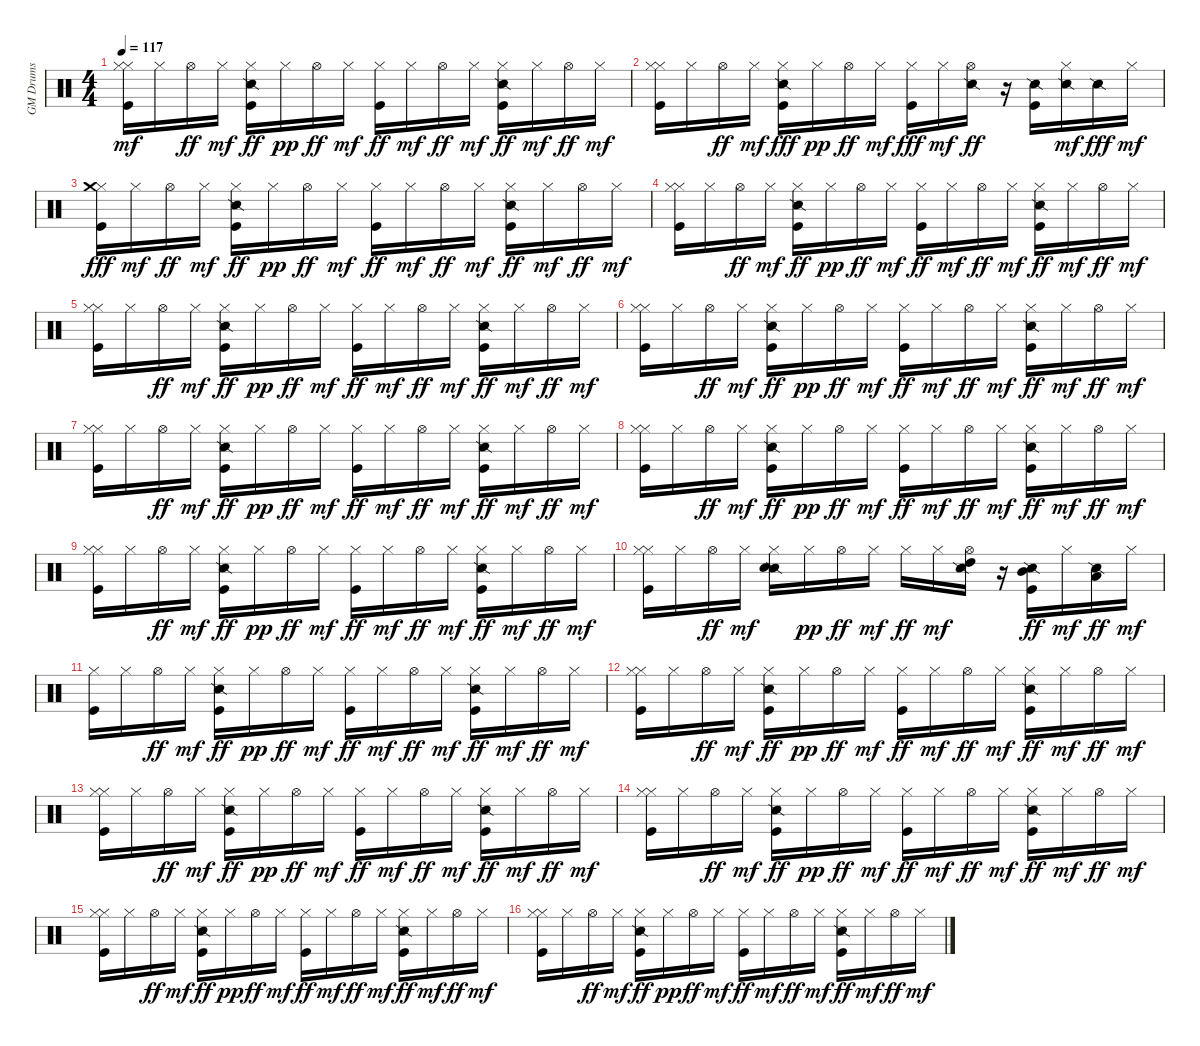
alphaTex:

\track ("GM Drums" "GM Drums") {instrument percussion}
\staff {score}
\articulation defaults
\ts (4 4)
\tempo 117
\clef neutral
\ks c
("Hi-Hat (closed)" "Kick (hit)" "Hi-Hat (closed)").16{dy mf} "Hi-Hat (closed)".16 "Hi-Hat (open)".16{dy ff} "Hi-Hat (closed)".16{dy mf} ("Kick (hit)" "Hi-Hat (closed)" "Snare (side stick) 2").16{dy ff} "Hi-Hat (closed)".16{dy pp} "Hi-Hat (open)".16{dy ff} "Hi-Hat (closed)".16{dy mf} ("Kick (hit)" "Hi-Hat (closed)").16{dy ff} "Hi-Hat (closed)".16{dy mf} "Hi-Hat (open)".16{dy ff} "Hi-Hat (closed)".16{dy mf} ("Kick (hit)" "Hi-Hat (closed)" "Snare (side stick) 2").16{dy ff} "Hi-Hat (closed)".16{dy mf} "Hi-Hat (open)".16{dy ff} "Hi-Hat (closed)".16{dy mf} |
("Hi-Hat (closed)" "Kick (hit)" "Hi-Hat (closed)").16 "Hi-Hat (closed)".16 "Hi-Hat (open)".16{dy ff} "Hi-Hat (closed)".16{dy mf} ("Hi-Hat (closed)" "Snare (side stick) 2" "Kick (hit)").16{dy fff} "Hi-Hat (closed)".16{dy pp} "Hi-Hat (open)".16{dy ff} "Hi-Hat (closed)".16{dy mf} ("Hi-Hat (closed)" "Kick (hit)").16{dy fff} "Hi-Hat (closed)".16{dy mf} ("Snare (side stick) 2" "Hi-Hat (open)").16{dy ff} r.16 ("Kick (hit)" "Snare (side stick) 2").16 ("Hi-Hat (closed)" "Snare (side stick) 2").16{dy mf} "Snare (side stick) 2".16{dy fff} "Hi-Hat (closed)".16{dy mf} |
("Kick (hit)" "Hi-Hat (closed)" "Crash medium (hit)").16{dy fff} "Hi-Hat (closed)".16{dy mf} "Hi-Hat (open)".16{dy ff} "Hi-Hat (closed)".16{dy mf} ("Kick (hit)" "Hi-Hat (closed)" "Snare (side stick) 2").16{dy ff} "Hi-Hat (closed)".16{dy pp} "Hi-Hat (open)".16{dy ff} "Hi-Hat (closed)".16{dy mf} ("Kick (hit)" "Hi-Hat (closed)").16{dy ff} "Hi-Hat (closed)".16{dy mf} "Hi-Hat (open)".16{dy ff} "Hi-Hat (closed)".16{dy mf} ("Kick (hit)" "Hi-Hat (closed)" "Snare (side stick) 2").16{dy ff} "Hi-Hat (closed)".16{dy mf} "Hi-Hat (open)".16{dy ff} "Hi-Hat (closed)".16{dy mf} |
("Hi-Hat (closed)" "Kick (hit)" "Hi-Hat (closed)").16 "Hi-Hat (closed)".16 "Hi-Hat (open)".16{dy ff} "Hi-Hat (closed)".16{dy mf} ("Kick (hit)" "Hi-Hat (closed)" "Snare (side stick) 2").16{dy ff} "Hi-Hat (closed)".16{dy pp} "Hi-Hat (open)".16{dy ff} "Hi-Hat (closed)".16{dy mf} ("Kick (hit)" "Hi-Hat (closed)").16{dy ff} "Hi-Hat (closed)".16{dy mf} "Hi-Hat (open)".16{dy ff} "Hi-Hat (closed)".16{dy mf} ("Kick (hit)" "Hi-Hat (closed)" "Snare (side stick) 2").16{dy ff} "Hi-Hat (closed)".16{dy mf} "Hi-Hat (open)".16{dy ff} "Hi-Hat (closed)".16{dy mf} |
("Hi-Hat (closed)" "Kick (hit)" "Hi-Hat (closed)").16 "Hi-Hat (closed)".16 "Hi-Hat (open)".16{dy ff} "Hi-Hat (closed)".16{dy mf} ("Kick (hit)" "Hi-Hat (closed)" "Snare (side stick) 2").16{dy ff} "Hi-Hat (closed)".16{dy pp} "Hi-Hat (open)".16{dy ff} "Hi-Hat (closed)".16{dy mf} ("Kick (hit)" "Hi-Hat (closed)").16{dy ff} "Hi-Hat (closed)".16{dy mf} "Hi-Hat (open)".16{dy ff} "Hi-Hat (closed)".16{dy mf} ("Kick (hit)" "Hi-Hat (closed)" "Snare (side stick) 2").16{dy ff} "Hi-Hat (closed)".16{dy mf} "Hi-Hat (open)".16{dy ff} "Hi-Hat (closed)".16{dy mf} |
("Hi-Hat (closed)" "Kick (hit)" "Hi-Hat (closed)").16 "Hi-Hat (closed)".16 "Hi-Hat (open)".16{dy ff} "Hi-Hat (closed)".16{dy mf} ("Kick (hit)" "Hi-Hat (closed)" "Snare (side stick) 2").16{dy ff} "Hi-Hat (closed)".16{dy pp} "Hi-Hat (open)".16{dy ff} "Hi-Hat (closed)".16{dy mf} ("Kick (hit)" "Hi-Hat (closed)").16{dy ff} "Hi-Hat (closed)".16{dy mf} "Hi-Hat (open)".16{dy ff} "Hi-Hat (closed)".16{dy mf} ("Kick (hit)" "Hi-Hat (closed)" "Snare (side stick) 2").16{dy ff} "Hi-Hat (closed)".16{dy mf} "Hi-Hat (open)".16{dy ff} "Hi-Hat (closed)".16{dy mf} |
("Hi-Hat (closed)" "Kick (hit)" "Hi-Hat (closed)").16 "Hi-Hat (closed)".16 "Hi-Hat (open)".16{dy ff} "Hi-Hat (closed)".16{dy mf} ("Kick (hit)" "Hi-Hat (closed)" "Snare (side stick) 2").16{dy ff} "Hi-Hat (closed)".16{dy pp} "Hi-Hat (open)".16{dy ff} "Hi-Hat (closed)".16{dy mf} ("Kick (hit)" "Hi-Hat (closed)").16{dy ff} "Hi-Hat (closed)".16{dy mf} "Hi-Hat (open)".16{dy ff} "Hi-Hat (closed)".16{dy mf} ("Kick (hit)" "Hi-Hat (closed)" "Snare (side stick) 2").16{dy ff} "Hi-Hat (closed)".16{dy mf} "Hi-Hat (open)".16{dy ff} "Hi-Hat (closed)".16{dy mf} |
("Hi-Hat (closed)" "Kick (hit)" "Hi-Hat (closed)").16 "Hi-Hat (closed)".16 "Hi-Hat (open)".16{dy ff} "Hi-Hat (closed)".16{dy mf} ("Kick (hit)" "Hi-Hat (closed)" "Snare (side stick) 2").16{dy ff} "Hi-Hat (closed)".16{dy pp} "Hi-Hat (open)".16{dy ff} "Hi-Hat (closed)".16{dy mf} ("Kick (hit)" "Hi-Hat (closed)").16{dy ff} "Hi-Hat (closed)".16{dy mf} "Hi-Hat (open)".16{dy ff} "Hi-Hat (closed)".16{dy mf} ("Kick (hit)" "Hi-Hat (closed)" "Snare (side stick) 2").16{dy ff} "Hi-Hat (closed)".16{dy mf} "Hi-Hat (open)".16{dy ff} "Hi-Hat (closed)".16{dy mf} |
("Hi-Hat (closed)" "Kick (hit)" "Hi-Hat (closed)").16 "Hi-Hat (closed)".16 "Hi-Hat (open)".16{dy ff} "Hi-Hat (closed)".16{dy mf} ("Kick (hit)" "Hi-Hat (closed)" "Snare (side stick) 2").16{dy ff} "Hi-Hat (closed)".16{dy pp} "Hi-Hat (open)".16{dy ff} "Hi-Hat (closed)".16{dy mf} ("Kick (hit)" "Hi-Hat (closed)").16{dy ff} "Hi-Hat (closed)".16{dy mf} "Hi-Hat (open)".16{dy ff} "Hi-Hat (closed)".16{dy mf} ("Kick (hit)" "Hi-Hat (closed)" "Snare (side stick) 2").16{dy ff} "Hi-Hat (closed)".16{dy mf} "Hi-Hat (open)".16{dy ff} "Hi-Hat (closed)".16{dy mf} |
("Hi-Hat (closed)" "Kick (hit)" "Hi-Hat (closed)").16 "Hi-Hat (closed)".16 "Hi-Hat (open)".16{dy ff} "Hi-Hat (closed)".16{dy mf} ("Hi-Hat (closed)" "Snare (side stick) 2" "Electric Snare (hit)").16 "Hi-Hat (closed)".16{dy pp} "Hi-Hat (open)".16{dy ff} "Hi-Hat (closed)".16{dy mf} "Hi-Hat (closed)".16{dy ff} "Hi-Hat (closed)".16{dy mf} ("Snare (side stick) 2" "Hi-Hat (open)" "High Tom (hit)").16 r.16 ("Kick (hit)" "Snare (side stick) 2" "Mid Tom (hit)").16{dy ff} "Hi-Hat (closed)".16{dy mf} ("Snare (side stick) 2" "Low Tom (hit)").16{dy ff} "Hi-Hat (closed)".16{dy mf} |
("Kick (hit)" "Hi-Hat (closed)").16 "Hi-Hat (closed)".16 "Hi-Hat (open)".16{dy ff} "Hi-Hat (closed)".16{dy mf} ("Kick (hit)" "Hi-Hat (closed)" "Snare (side stick) 2").16{dy ff} "Hi-Hat (closed)".16{dy pp} "Hi-Hat (open)".16{dy ff} "Hi-Hat (closed)".16{dy mf} ("Kick (hit)" "Hi-Hat (closed)").16{dy ff} "Hi-Hat (closed)".16{dy mf} "Hi-Hat (open)".16{dy ff} "Hi-Hat (closed)".16{dy mf} ("Kick (hit)" "Hi-Hat (closed)" "Snare (side stick) 2").16{dy ff} "Hi-Hat (closed)".16{dy mf} "Hi-Hat (open)".16{dy ff} "Hi-Hat (closed)".16{dy mf} |
("Hi-Hat (closed)" "Kick (hit)" "Hi-Hat (closed)").16 "Hi-Hat (closed)".16 "Hi-Hat (open)".16{dy ff} "Hi-Hat (closed)".16{dy mf} ("Kick (hit)" "Hi-Hat (closed)" "Snare (side stick) 2").16{dy ff} "Hi-Hat (closed)".16{dy pp} "Hi-Hat (open)".16{dy ff} "Hi-Hat (closed)".16{dy mf} ("Kick (hit)" "Hi-Hat (closed)").16{dy ff} "Hi-Hat (closed)".16{dy mf} "Hi-Hat (open)".16{dy ff} "Hi-Hat (closed)".16{dy mf} ("Kick (hit)" "Hi-Hat (closed)" "Snare (side stick) 2").16{dy ff} "Hi-Hat (closed)".16{dy mf} "Hi-Hat (open)".16{dy ff} "Hi-Hat (closed)".16{dy mf} |
("Hi-Hat (closed)" "Kick (hit)" "Hi-Hat (closed)").16 "Hi-Hat (closed)".16 "Hi-Hat (open)".16{dy ff} "Hi-Hat (closed)".16{dy mf} ("Kick (hit)" "Hi-Hat (closed)" "Snare (side stick) 2").16{dy ff} "Hi-Hat (closed)".16{dy pp} "Hi-Hat (open)".16{dy ff} "Hi-Hat (closed)".16{dy mf} ("Kick (hit)" "Hi-Hat (closed)").16{dy ff} "Hi-Hat (closed)".16{dy mf} "Hi-Hat (open)".16{dy ff} "Hi-Hat (closed)".16{dy mf} ("Kick (hit)" "Hi-Hat (closed)" "Snare (side stick) 2").16{dy ff} "Hi-Hat (closed)".16{dy mf} "Hi-Hat (open)".16{dy ff} "Hi-Hat (closed)".16{dy mf} |
("Hi-Hat (closed)" "Kick (hit)" "Hi-Hat (closed)").16 "Hi-Hat (closed)".16 "Hi-Hat (open)".16{dy ff} "Hi-Hat (closed)".16{dy mf} ("Kick (hit)" "Hi-Hat (closed)" "Snare (side stick) 2").16{dy ff} "Hi-Hat (closed)".16{dy pp} "Hi-Hat (open)".16{dy ff} "Hi-Hat (closed)".16{dy mf} ("Kick (hit)" "Hi-Hat (closed)").16{dy ff} "Hi-Hat (closed)".16{dy mf} "Hi-Hat (open)".16{dy ff} "Hi-Hat (closed)".16{dy mf} ("Kick (hit)" "Hi-Hat (closed)" "Snare (side stick) 2").16{dy ff} "Hi-Hat (closed)".16{dy mf} "Hi-Hat (open)".16{dy ff} "Hi-Hat (closed)".16{dy mf} |
("Hi-Hat (closed)" "Kick (hit)" "Hi-Hat (closed)").16 "Hi-Hat (closed)".16 "Hi-Hat (open)".16{dy ff} "Hi-Hat (closed)".16{dy mf} ("Kick (hit)" "Hi-Hat (closed)" "Snare (side stick) 2").16{dy ff} "Hi-Hat (closed)".16{dy pp} "Hi-Hat (open)".16{dy ff} "Hi-Hat (closed)".16{dy mf} ("Kick (hit)" "Hi-Hat (closed)").16{dy ff} "Hi-Hat (closed)".16{dy mf} "Hi-Hat (open)".16{dy ff} "Hi-Hat (closed)".16{dy mf} ("Kick (hit)" "Hi-Hat (closed)" "Snare (side stick) 2").16{dy ff} "Hi-Hat (closed)".16{dy mf} "Hi-Hat (open)".16{dy ff} "Hi-Hat (closed)".16{dy mf} |
("Hi-Hat (closed)" "Kick (hit)" "Hi-Hat (closed)").16 "Hi-Hat (closed)".16 "Hi-Hat (open)".16{dy ff} "Hi-Hat (closed)".16{dy mf} ("Kick (hit)" "Hi-Hat (closed)" "Snare (side stick) 2").16{dy ff} "Hi-Hat (closed)".16{dy pp} "Hi-Hat (open)".16{dy ff} "Hi-Hat (closed)".16{dy mf} ("Kick (hit)" "Hi-Hat (closed)").16{dy ff} "Hi-Hat (closed)".16{dy mf} "Hi-Hat (open)".16{dy ff} "Hi-Hat (closed)".16{dy mf} ("Kick (hit)" "Hi-Hat (closed)" "Snare (side stick) 2").16{dy ff} "Hi-Hat (closed)".16{dy mf} "Hi-Hat (open)".16{dy ff} "Hi-Hat (closed)".16{dy mf}
